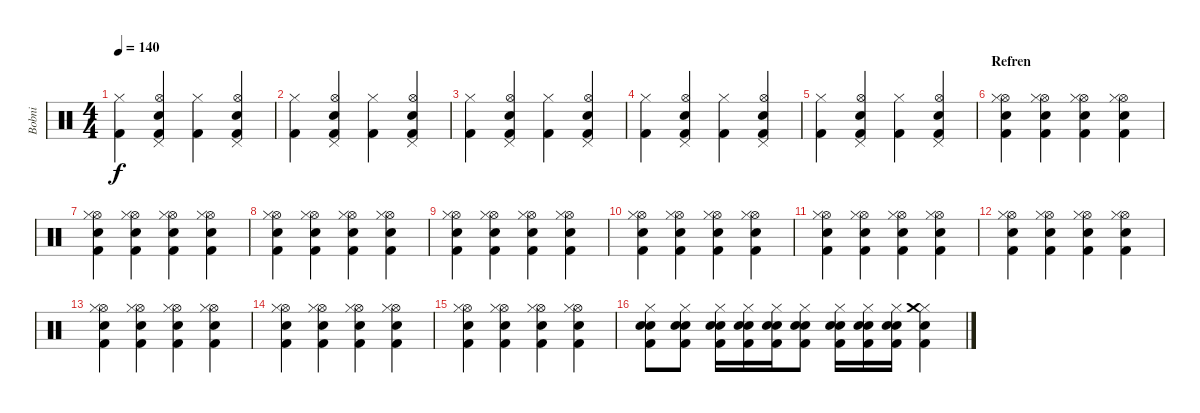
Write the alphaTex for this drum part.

\track ("Bobni" "Bobni") {instrument percussion}
\staff {score}
\articulation defaults
\ts (4 4)
\tempo 140
\clef neutral
\ks c
("Hi-Hat (closed)" "Kick (hit) 2").4{dy f} ("Hi-Hat (open)" "Snare (hit) 2" "Pedal Hi-Hat (hit)" "Kick (hit) 2").4 ("Hi-Hat (closed)" "Kick (hit) 2").4 ("Hi-Hat (open)" "Snare (hit) 2" "Pedal Hi-Hat (hit)" "Kick (hit) 2").4 |
("Hi-Hat (closed)" "Kick (hit) 2").4 ("Hi-Hat (open)" "Snare (hit) 2" "Pedal Hi-Hat (hit)" "Kick (hit) 2").4 ("Hi-Hat (closed)" "Kick (hit) 2").4 ("Hi-Hat (open)" "Snare (hit) 2" "Pedal Hi-Hat (hit)" "Kick (hit) 2").4 |
("Hi-Hat (closed)" "Kick (hit) 2").4 ("Hi-Hat (open)" "Snare (hit) 2" "Pedal Hi-Hat (hit)" "Kick (hit) 2").4 ("Hi-Hat (closed)" "Kick (hit) 2").4 ("Hi-Hat (open)" "Snare (hit) 2" "Pedal Hi-Hat (hit)" "Kick (hit) 2").4 |
("Hi-Hat (closed)" "Kick (hit) 2").4 ("Hi-Hat (open)" "Snare (hit) 2" "Pedal Hi-Hat (hit)" "Kick (hit) 2").4 ("Hi-Hat (closed)" "Kick (hit) 2").4 ("Hi-Hat (open)" "Snare (hit) 2" "Pedal Hi-Hat (hit)" "Kick (hit) 2").4 |
("Hi-Hat (closed)" "Kick (hit) 2").4 ("Hi-Hat (open)" "Snare (hit) 2" "Pedal Hi-Hat (hit)" "Kick (hit) 2").4 ("Hi-Hat (closed)" "Kick (hit) 2").4 ("Hi-Hat (open)" "Snare (hit) 2" "Pedal Hi-Hat (hit)" "Kick (hit) 2").4 |
\section ("" "Refren")
("Hi-Hat (open)" "Snare (hit) 2" "Hi-Hat (closed)" "Kick (hit) 2").4 ("Hi-Hat (open)" "Snare (hit) 2" "Hi-Hat (closed)" "Kick (hit) 2").4 ("Hi-Hat (open)" "Snare (hit) 2" "Hi-Hat (closed)" "Kick (hit) 2").4 ("Hi-Hat (open)" "Snare (hit) 2" "Hi-Hat (closed)" "Kick (hit) 2").4 |
("Hi-Hat (open)" "Snare (hit) 2" "Hi-Hat (closed)" "Kick (hit) 2").4 ("Hi-Hat (open)" "Snare (hit) 2" "Hi-Hat (closed)" "Kick (hit) 2").4 ("Hi-Hat (open)" "Snare (hit) 2" "Hi-Hat (closed)" "Kick (hit) 2").4 ("Hi-Hat (open)" "Snare (hit) 2" "Hi-Hat (closed)" "Kick (hit) 2").4 |
("Hi-Hat (open)" "Snare (hit) 2" "Hi-Hat (closed)" "Kick (hit) 2").4 ("Hi-Hat (open)" "Snare (hit) 2" "Hi-Hat (closed)" "Kick (hit) 2").4 ("Hi-Hat (open)" "Snare (hit) 2" "Hi-Hat (closed)" "Kick (hit) 2").4 ("Hi-Hat (open)" "Snare (hit) 2" "Hi-Hat (closed)" "Kick (hit) 2").4 |
("Hi-Hat (open)" "Snare (hit) 2" "Hi-Hat (closed)" "Kick (hit) 2").4 ("Hi-Hat (open)" "Snare (hit) 2" "Hi-Hat (closed)" "Kick (hit) 2").4 ("Hi-Hat (open)" "Snare (hit) 2" "Hi-Hat (closed)" "Kick (hit) 2").4 ("Hi-Hat (open)" "Snare (hit) 2" "Hi-Hat (closed)" "Kick (hit) 2").4 |
("Hi-Hat (open)" "Snare (hit) 2" "Hi-Hat (closed)" "Kick (hit) 2").4 ("Hi-Hat (open)" "Snare (hit) 2" "Hi-Hat (closed)" "Kick (hit) 2").4 ("Hi-Hat (open)" "Snare (hit) 2" "Hi-Hat (closed)" "Kick (hit) 2").4 ("Hi-Hat (open)" "Snare (hit) 2" "Hi-Hat (closed)" "Kick (hit) 2").4 |
("Hi-Hat (open)" "Snare (hit) 2" "Hi-Hat (closed)" "Kick (hit) 2").4 ("Hi-Hat (open)" "Snare (hit) 2" "Hi-Hat (closed)" "Kick (hit) 2").4 ("Hi-Hat (open)" "Snare (hit) 2" "Hi-Hat (closed)" "Kick (hit) 2").4 ("Hi-Hat (open)" "Snare (hit) 2" "Hi-Hat (closed)" "Kick (hit) 2").4 |
("Hi-Hat (open)" "Snare (hit) 2" "Hi-Hat (closed)" "Kick (hit) 2").4 ("Hi-Hat (open)" "Snare (hit) 2" "Hi-Hat (closed)" "Kick (hit) 2").4 ("Hi-Hat (open)" "Snare (hit) 2" "Hi-Hat (closed)" "Kick (hit) 2").4 ("Hi-Hat (open)" "Snare (hit) 2" "Hi-Hat (closed)" "Kick (hit) 2").4 |
("Hi-Hat (open)" "Snare (hit) 2" "Hi-Hat (closed)" "Kick (hit) 2").4 ("Hi-Hat (open)" "Snare (hit) 2" "Hi-Hat (closed)" "Kick (hit) 2").4 ("Hi-Hat (open)" "Snare (hit) 2" "Hi-Hat (closed)" "Kick (hit) 2").4 ("Hi-Hat (open)" "Snare (hit) 2" "Hi-Hat (closed)" "Kick (hit) 2").4 |
("Hi-Hat (open)" "Snare (hit) 2" "Hi-Hat (closed)" "Kick (hit) 2").4 ("Hi-Hat (open)" "Snare (hit) 2" "Hi-Hat (closed)" "Kick (hit) 2").4 ("Hi-Hat (open)" "Snare (hit) 2" "Hi-Hat (closed)" "Kick (hit) 2").4 ("Hi-Hat (open)" "Snare (hit) 2" "Hi-Hat (closed)" "Kick (hit) 2").4 |
("Hi-Hat (open)" "Snare (hit) 2" "Hi-Hat (closed)" "Kick (hit) 2").4 ("Hi-Hat (open)" "Snare (hit) 2" "Hi-Hat (closed)" "Kick (hit) 2").4 ("Hi-Hat (open)" "Snare (hit) 2" "Hi-Hat (closed)" "Kick (hit) 2").4 ("Hi-Hat (open)" "Snare (hit) 2" "Hi-Hat (closed)" "Kick (hit) 2").4 |
("Hi-Hat (closed)" "Snare (hit) 2" "Snare (hit) 2" "Kick (hit) 2").8 ("Hi-Hat (closed)" "Snare (hit) 2" "Snare (hit) 2" "Kick (hit) 2").8 ("Hi-Hat (closed)" "Snare (hit) 2" "Snare (hit) 2" "Kick (hit) 2").16 ("Hi-Hat (closed)" "Snare (hit) 2" "Snare (hit) 2" "Kick (hit) 2").16 ("Hi-Hat (closed)" "Snare (hit) 2" "Snare (hit) 2" "Kick (hit) 2").16 ("Hi-Hat (closed)" "Snare (hit) 2" "Snare (hit) 2" "Kick (hit) 2").8 ("Hi-Hat (closed)" "Snare (hit) 2" "Snare (hit) 2" "Kick (hit) 2").16 ("Hi-Hat (closed)" "Snare (hit) 2" "Snare (hit) 2" "Kick (hit) 2").16 ("Hi-Hat (closed)" "Snare (hit) 2" "Snare (hit) 2" "Kick (hit) 2").16 ("Hi-Hat (closed)" "Snare (hit) 2" "Crash medium (hit)" "Kick (hit) 2").4
